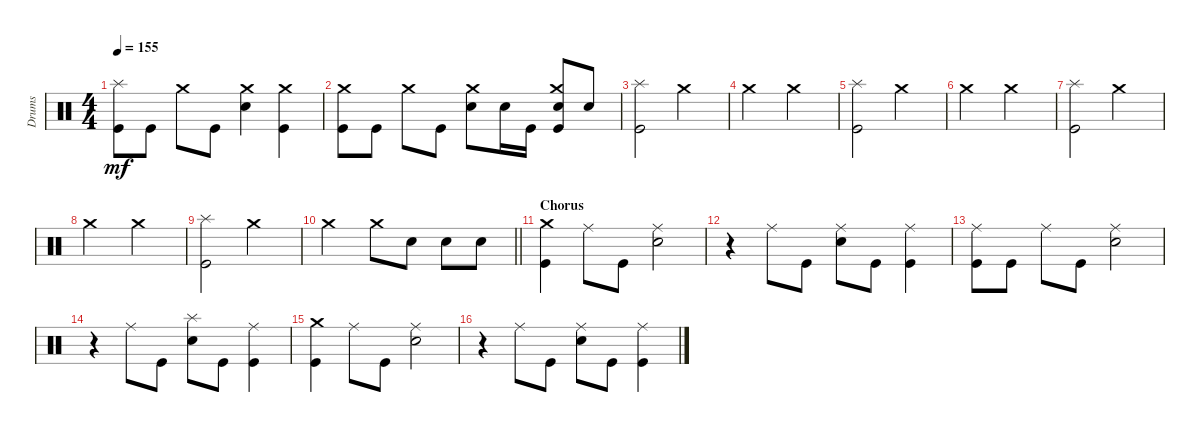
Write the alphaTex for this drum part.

\track ("Drums" "Drums") {instrument percussion}
\staff {score}
\articulation defaults
\ts (4 4)
\tempo 155
\clef neutral
\ks c
("Kick (hit)" "Splash (hit)").8{dy mf} "Kick (hit)".8 "Crash medium (hit)".8 "Kick (hit)".8 ("Snare (hit) 2" "Crash medium (hit)").4 ("Kick (hit)" "Crash medium (hit)").4 |
("Kick (hit)" "Crash medium (hit)").8 "Kick (hit)".8 "Crash medium (hit)".8 "Kick (hit)".8 ("Snare (hit) 2" "Crash medium (hit)").8 "Snare (hit) 2".16 "Kick (hit)".16 ("Snare (hit) 2" "Kick (hit)" "Crash medium (hit)").8 "Snare (hit) 2".8 |
("Kick (hit)" "Splash (hit)").2 "Crash medium (hit)".2 |
"Crash medium (hit)".2 "Crash medium (hit)".2 |
("Kick (hit)" "Splash (hit)").2 "Crash medium (hit)".2 |
"Crash medium (hit)".2 "Crash medium (hit)".2 |
("Kick (hit)" "Splash (hit)").2 "Crash medium (hit)".2 |
"Crash medium (hit)".2 "Crash medium (hit)".2 |
("Kick (hit)" "Splash (hit)").2 "Crash medium (hit)".2 |
\barLineRight lightlight "Crash medium (hit)".2 "Crash medium (hit)".8 "Snare (hit) 2".8 "Snare (hit) 2".8 "Snare (hit) 2".8
|
\section ("" "Chorus")
("Crash medium (hit)" "Kick (hit)").4 "Ride (middle)".8 "Kick (hit)".8 ("Snare (hit) 2" "Ride (middle)").2 |
r.4 "Ride (middle)".8 "Kick (hit)".8 ("Snare (hit) 2" "Ride (middle)").8 "Kick (hit)".8 ("Kick (hit)" "Ride (middle)").4 |
("Kick (hit)" "Ride (middle)").8 "Kick (hit)".8 "Ride (middle)".8 "Kick (hit)".8 ("Snare (hit) 2" "Ride (middle)").2 |
r.4 "Ride (middle)".8 "Kick (hit)".8 ("Snare (hit) 2" "Splash (hit)").8 "Kick (hit)".8 ("Kick (hit)" "Ride (middle)").4 |
("Crash medium (hit)" "Kick (hit)").4 "Ride (middle)".8 "Kick (hit)".8 ("Snare (hit) 2" "Ride (middle)").2 |
r.4 "Ride (middle)".8 "Kick (hit)".8 ("Snare (hit) 2" "Ride (middle)").8 "Kick (hit)".8 ("Kick (hit)" "Ride (middle)").4
